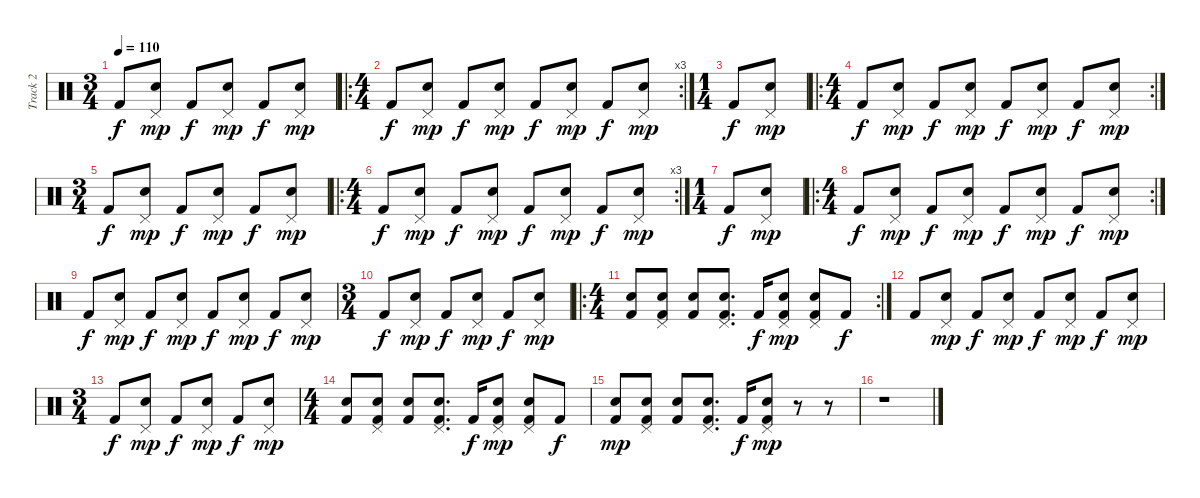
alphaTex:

\track ("Track 2" "Track 2") {instrument percussion}
\staff {score}
\articulation defaults
\ts (3 4)
\tempo 110
\clef neutral
\ks c "Kick (hit) 2".8{dy f}
("Pedal Hi-Hat (hit)" "Hand Clap (hit)").8{dy mp} "Kick (hit) 2".8{dy f} ("Pedal Hi-Hat (hit)" "Hand Clap (hit)").8{dy mp} "Kick (hit) 2".8{dy f} ("Pedal Hi-Hat (hit)" "Hand Clap (hit)").8{dy mp} |
\ro
\rc 3
\ts (4 4)
"Kick (hit) 2".8{dy f} ("Pedal Hi-Hat (hit)" "Hand Clap (hit)").8{dy mp} "Kick (hit) 2".8{dy f} ("Pedal Hi-Hat (hit)" "Hand Clap (hit)").8{dy mp} "Kick (hit) 2".8{dy f} ("Pedal Hi-Hat (hit)" "Hand Clap (hit)").8{dy mp} "Kick (hit) 2".8{dy f} ("Pedal Hi-Hat (hit)" "Hand Clap (hit)").8{dy mp} |
\ts (1 4)
"Kick (hit) 2".8{dy f} ("Pedal Hi-Hat (hit)" "Hand Clap (hit)").8{dy mp} |
\ro
\rc 2
\ts (4 4)
"Kick (hit) 2".8{dy f} ("Pedal Hi-Hat (hit)" "Hand Clap (hit)").8{dy mp} "Kick (hit) 2".8{dy f} ("Pedal Hi-Hat (hit)" "Hand Clap (hit)").8{dy mp} "Kick (hit) 2".8{dy f} ("Pedal Hi-Hat (hit)" "Hand Clap (hit)").8{dy mp} "Kick (hit) 2".8{dy f} ("Pedal Hi-Hat (hit)" "Hand Clap (hit)").8{dy mp} |
\ts (3 4)
"Kick (hit) 2".8{dy f} ("Pedal Hi-Hat (hit)" "Hand Clap (hit)").8{dy mp} "Kick (hit) 2".8{dy f} ("Pedal Hi-Hat (hit)" "Hand Clap (hit)").8{dy mp} "Kick (hit) 2".8{dy f} ("Pedal Hi-Hat (hit)" "Hand Clap (hit)").8{dy mp} |
\ro
\rc 3
\ts (4 4)
"Kick (hit) 2".8{dy f} ("Pedal Hi-Hat (hit)" "Hand Clap (hit)").8{dy mp} "Kick (hit) 2".8{dy f} ("Pedal Hi-Hat (hit)" "Hand Clap (hit)").8{dy mp} "Kick (hit) 2".8{dy f} ("Pedal Hi-Hat (hit)" "Hand Clap (hit)").8{dy mp} "Kick (hit) 2".8{dy f} ("Pedal Hi-Hat (hit)" "Hand Clap (hit)").8{dy mp} |
\ts (1 4)
"Kick (hit) 2".8{dy f} ("Pedal Hi-Hat (hit)" "Hand Clap (hit)").8{dy mp} |
\ro
\rc 2
\ts (4 4)
"Kick (hit) 2".8{dy f} ("Pedal Hi-Hat (hit)" "Hand Clap (hit)").8{dy mp} "Kick (hit) 2".8{dy f} ("Pedal Hi-Hat (hit)" "Hand Clap (hit)").8{dy mp} "Kick (hit) 2".8{dy f} ("Pedal Hi-Hat (hit)" "Hand Clap (hit)").8{dy mp} "Kick (hit) 2".8{dy f} ("Pedal Hi-Hat (hit)" "Hand Clap (hit)").8{dy mp} |
"Kick (hit) 2".8{dy f} ("Pedal Hi-Hat (hit)" "Hand Clap (hit)").8{dy mp} "Kick (hit) 2".8{dy f} ("Pedal Hi-Hat (hit)" "Hand Clap (hit)").8{dy mp} "Kick (hit) 2".8{dy f} ("Pedal Hi-Hat (hit)" "Hand Clap (hit)").8{dy mp} "Kick (hit) 2".8{dy f} ("Pedal Hi-Hat (hit)" "Hand Clap (hit)").8{dy mp} |
\ts (3 4)
"Kick (hit) 2".8{dy f} ("Pedal Hi-Hat (hit)" "Hand Clap (hit)").8{dy mp} "Kick (hit) 2".8{dy f} ("Pedal Hi-Hat (hit)" "Hand Clap (hit)").8{dy mp} "Kick (hit) 2".8{dy f} ("Pedal Hi-Hat (hit)" "Hand Clap (hit)").8{dy mp} |
\ro
\rc 2
\ts (4 4)
("Kick (hit) 2" "Hand Clap (hit)").8 ("Kick (hit) 2" "Hand Clap (hit)" "Pedal Hi-Hat (hit)").8 ("Kick (hit) 2" "Hand Clap (hit)").8 ("Kick (hit) 2" "Hand Clap (hit)" "Pedal Hi-Hat (hit)").8{d} "Kick (hit) 2".16{dy f} ("Kick (hit) 2" "Hand Clap (hit)" "Pedal Hi-Hat (hit)").8{dy mp} ("Kick (hit) 2" "Hand Clap (hit)" "Pedal Hi-Hat (hit)").8 "Kick (hit) 2".8{dy f} |
"Kick (hit) 2".8 ("Pedal Hi-Hat (hit)" "Hand Clap (hit)").8{dy mp} "Kick (hit) 2".8{dy f} ("Pedal Hi-Hat (hit)" "Hand Clap (hit)").8{dy mp} "Kick (hit) 2".8{dy f} ("Pedal Hi-Hat (hit)" "Hand Clap (hit)").8{dy mp} "Kick (hit) 2".8{dy f} ("Pedal Hi-Hat (hit)" "Hand Clap (hit)").8{dy mp} |
\ts (3 4)
"Kick (hit) 2".8{dy f} ("Pedal Hi-Hat (hit)" "Hand Clap (hit)").8{dy mp} "Kick (hit) 2".8{dy f} ("Pedal Hi-Hat (hit)" "Hand Clap (hit)").8{dy mp} "Kick (hit) 2".8{dy f} ("Pedal Hi-Hat (hit)" "Hand Clap (hit)").8{dy mp} |
\ts (4 4)
("Kick (hit) 2" "Hand Clap (hit)").8 ("Kick (hit) 2" "Hand Clap (hit)" "Pedal Hi-Hat (hit)").8 ("Kick (hit) 2" "Hand Clap (hit)").8 ("Kick (hit) 2" "Hand Clap (hit)" "Pedal Hi-Hat (hit)").8{d} "Kick (hit) 2".16{dy f} ("Kick (hit) 2" "Hand Clap (hit)" "Pedal Hi-Hat (hit)").8{dy mp} ("Kick (hit) 2" "Hand Clap (hit)" "Pedal Hi-Hat (hit)").8 "Kick (hit) 2".8{dy f} |
("Kick (hit) 2" "Hand Clap (hit)").8{dy mp} ("Kick (hit) 2" "Hand Clap (hit)" "Pedal Hi-Hat (hit)").8 ("Kick (hit) 2" "Hand Clap (hit)").8 ("Kick (hit) 2" "Hand Clap (hit)" "Pedal Hi-Hat (hit)").8{d} "Kick (hit) 2".16{dy f} ("Kick (hit) 2" "Hand Clap (hit)" "Pedal Hi-Hat (hit)").8{dy mp} r.8 r.8 |
r.1
